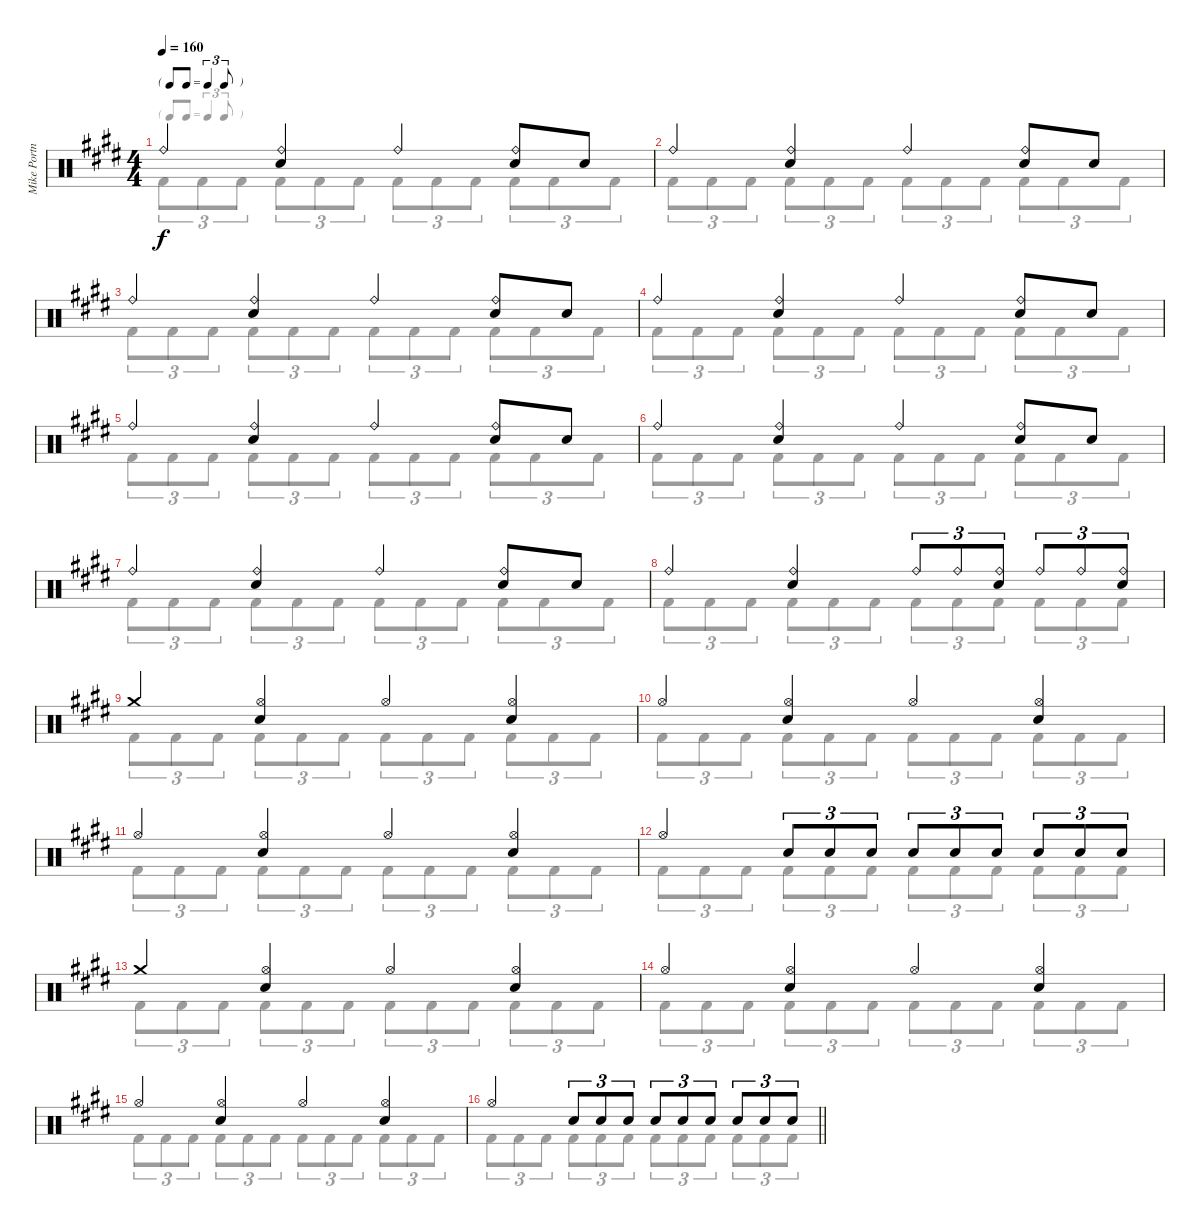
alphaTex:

\track ("Mike Portnoy" "Mike Portn") {instrument percussion}
\staff {score}
\articulation defaults
\voice
\ts (4 4)
\tf triplet8th
\tempo 160
\clef neutral
\ks e "Ride (bell)".4{dy f}
("Ride (bell)" "Snare (hit) 2").4 "Ride (bell)".4 ("Ride (bell)" "Snare (hit) 2").8 "Snare (hit) 2".8 |
"Ride (bell)".4 ("Ride (bell)" "Snare (hit) 2").4 "Ride (bell)".4 ("Ride (bell)" "Snare (hit) 2").8 "Snare (hit) 2".8 |
"Ride (bell)".4 ("Ride (bell)" "Snare (hit) 2").4 "Ride (bell)".4 ("Ride (bell)" "Snare (hit) 2").8 "Snare (hit) 2".8 |
"Ride (bell)".4 ("Ride (bell)" "Snare (hit) 2").4 "Ride (bell)".4 ("Ride (bell)" "Snare (hit) 2").8 "Snare (hit) 2".8 |
"Ride (bell)".4 ("Ride (bell)" "Snare (hit) 2").4 "Ride (bell)".4 ("Ride (bell)" "Snare (hit) 2").8 "Snare (hit) 2".8 |
"Ride (bell)".4 ("Ride (bell)" "Snare (hit) 2").4 "Ride (bell)".4 ("Ride (bell)" "Snare (hit) 2").8 "Snare (hit) 2".8 |
"Ride (bell)".4 ("Ride (bell)" "Snare (hit) 2").4 "Ride (bell)".4 ("Ride (bell)" "Snare (hit) 2").8 "Snare (hit) 2".8 |
"Ride (bell)".4 ("Ride (bell)" "Snare (hit) 2").4 "Ride (bell)".8{tu (3 2)} "Ride (bell)".8{tu (3 2)} ("Ride (bell)" "Snare (hit) 2").8{tu (3 2)} "Ride (bell)".8{tu (3 2)} "Ride (bell)".8{tu (3 2)} ("Ride (bell)" "Snare (hit) 2").8{tu (3 2)} |
"Crash medium (hit)".4 ("Hi-Hat (open)" "Snare (hit) 2").4 "Hi-Hat (open)".4 ("Hi-Hat (open)" "Snare (hit) 2").4 |
"Hi-Hat (open)".4 ("Hi-Hat (open)" "Snare (hit) 2").4 "Hi-Hat (open)".4 ("Hi-Hat (open)" "Snare (hit) 2").4 |
"Hi-Hat (open)".4 ("Hi-Hat (open)" "Snare (hit) 2").4 "Hi-Hat (open)".4 ("Hi-Hat (open)" "Snare (hit) 2").4 |
"Hi-Hat (open)".4 "Snare (hit) 2".8{tu (3 2)} "Snare (hit) 2".8{tu (3 2)} "Snare (hit) 2".8{tu (3 2)} "Snare (hit) 2".8{tu (3 2)} "Snare (hit) 2".8{tu (3 2)} "Snare (hit) 2".8{tu (3 2)} "Snare (hit) 2".8{tu (3 2)} "Snare (hit) 2".8{tu (3 2)} "Snare (hit) 2".8{tu (3 2)} |
"Crash medium (hit)".4 ("Hi-Hat (open)" "Snare (hit) 2").4 "Hi-Hat (open)".4 ("Hi-Hat (open)" "Snare (hit) 2").4 |
"Hi-Hat (open)".4 ("Hi-Hat (open)" "Snare (hit) 2").4 "Hi-Hat (open)".4 ("Hi-Hat (open)" "Snare (hit) 2").4 |
"Hi-Hat (open)".4 ("Hi-Hat (open)" "Snare (hit) 2").4 "Hi-Hat (open)".4 ("Hi-Hat (open)" "Snare (hit) 2").4 |
\barLineRight lightlight "Hi-Hat (open)".4 "Snare (hit) 2".8{tu (3 2)} "Snare (hit) 2".8{tu (3 2)} "Snare (hit) 2".8{tu (3 2)} "Snare (hit) 2".8{tu (3 2)} "Snare (hit) 2".8{tu (3 2)} "Snare (hit) 2".8{tu (3 2)} "Snare (hit) 2".8{tu (3 2)} "Snare (hit) 2".8{tu (3 2)} "Snare (hit) 2".8{tu (3 2)}
\voice
\clef neutral
\ottava regular
\simile none
\ks e "Kick (hit) 2".8{tu (3 2) dy f} "Kick (hit) 2".8{tu (3 2)} "Kick (hit) 2".8{tu (3 2)} "Kick (hit) 2".8{tu (3 2)} "Kick (hit) 2".8{tu (3 2)} "Kick (hit) 2".8{tu (3 2)} "Kick (hit) 2".8{tu (3 2)} "Kick (hit) 2".8{tu (3 2)} "Kick (hit) 2".8{tu (3 2)} "Kick (hit) 2".8{tu (3 2)} "Kick (hit) 2".8{tu (3 2)} "Kick (hit) 2".8{tu (3 2)}
|
"Kick (hit) 2".8{tu (3 2)} "Kick (hit) 2".8{tu (3 2)} "Kick (hit) 2".8{tu (3 2)} "Kick (hit) 2".8{tu (3 2)} "Kick (hit) 2".8{tu (3 2)} "Kick (hit) 2".8{tu (3 2)} "Kick (hit) 2".8{tu (3 2)} "Kick (hit) 2".8{tu (3 2)} "Kick (hit) 2".8{tu (3 2)} "Kick (hit) 2".8{tu (3 2)} "Kick (hit) 2".8{tu (3 2)} "Kick (hit) 2".8{tu (3 2)} |
"Kick (hit) 2".8{tu (3 2)} "Kick (hit) 2".8{tu (3 2)} "Kick (hit) 2".8{tu (3 2)} "Kick (hit) 2".8{tu (3 2)} "Kick (hit) 2".8{tu (3 2)} "Kick (hit) 2".8{tu (3 2)} "Kick (hit) 2".8{tu (3 2)} "Kick (hit) 2".8{tu (3 2)} "Kick (hit) 2".8{tu (3 2)} "Kick (hit) 2".8{tu (3 2)} "Kick (hit) 2".8{tu (3 2)} "Kick (hit) 2".8{tu (3 2)} |
"Kick (hit) 2".8{tu (3 2)} "Kick (hit) 2".8{tu (3 2)} "Kick (hit) 2".8{tu (3 2)} "Kick (hit) 2".8{tu (3 2)} "Kick (hit) 2".8{tu (3 2)} "Kick (hit) 2".8{tu (3 2)} "Kick (hit) 2".8{tu (3 2)} "Kick (hit) 2".8{tu (3 2)} "Kick (hit) 2".8{tu (3 2)} "Kick (hit) 2".8{tu (3 2)} "Kick (hit) 2".8{tu (3 2)} "Kick (hit) 2".8{tu (3 2)} |
"Kick (hit) 2".8{tu (3 2)} "Kick (hit) 2".8{tu (3 2)} "Kick (hit) 2".8{tu (3 2)} "Kick (hit) 2".8{tu (3 2)} "Kick (hit) 2".8{tu (3 2)} "Kick (hit) 2".8{tu (3 2)} "Kick (hit) 2".8{tu (3 2)} "Kick (hit) 2".8{tu (3 2)} "Kick (hit) 2".8{tu (3 2)} "Kick (hit) 2".8{tu (3 2)} "Kick (hit) 2".8{tu (3 2)} "Kick (hit) 2".8{tu (3 2)} |
"Kick (hit) 2".8{tu (3 2)} "Kick (hit) 2".8{tu (3 2)} "Kick (hit) 2".8{tu (3 2)} "Kick (hit) 2".8{tu (3 2)} "Kick (hit) 2".8{tu (3 2)} "Kick (hit) 2".8{tu (3 2)} "Kick (hit) 2".8{tu (3 2)} "Kick (hit) 2".8{tu (3 2)} "Kick (hit) 2".8{tu (3 2)} "Kick (hit) 2".8{tu (3 2)} "Kick (hit) 2".8{tu (3 2)} "Kick (hit) 2".8{tu (3 2)} |
"Kick (hit) 2".8{tu (3 2)} "Kick (hit) 2".8{tu (3 2)} "Kick (hit) 2".8{tu (3 2)} "Kick (hit) 2".8{tu (3 2)} "Kick (hit) 2".8{tu (3 2)} "Kick (hit) 2".8{tu (3 2)} "Kick (hit) 2".8{tu (3 2)} "Kick (hit) 2".8{tu (3 2)} "Kick (hit) 2".8{tu (3 2)} "Kick (hit) 2".8{tu (3 2)} "Kick (hit) 2".8{tu (3 2)} "Kick (hit) 2".8{tu (3 2)} |
"Kick (hit) 2".8{tu (3 2)} "Kick (hit) 2".8{tu (3 2)} "Kick (hit) 2".8{tu (3 2)} "Kick (hit) 2".8{tu (3 2)} "Kick (hit) 2".8{tu (3 2)} "Kick (hit) 2".8{tu (3 2)} "Kick (hit) 2".8{tu (3 2)} "Kick (hit) 2".8{tu (3 2)} "Kick (hit) 2".8{tu (3 2)} "Kick (hit) 2".8{tu (3 2)} "Kick (hit) 2".8{tu (3 2)} "Kick (hit) 2".8{tu (3 2)} |
"Kick (hit) 2".8{tu (3 2)} "Kick (hit) 2".8{tu (3 2)} "Kick (hit) 2".8{tu (3 2)} "Kick (hit) 2".8{tu (3 2)} "Kick (hit) 2".8{tu (3 2)} "Kick (hit) 2".8{tu (3 2)} "Kick (hit) 2".8{tu (3 2)} "Kick (hit) 2".8{tu (3 2)} "Kick (hit) 2".8{tu (3 2)} "Kick (hit) 2".8{tu (3 2)} "Kick (hit) 2".8{tu (3 2)} "Kick (hit) 2".8{tu (3 2)} |
"Kick (hit) 2".8{tu (3 2)} "Kick (hit) 2".8{tu (3 2)} "Kick (hit) 2".8{tu (3 2)} "Kick (hit) 2".8{tu (3 2)} "Kick (hit) 2".8{tu (3 2)} "Kick (hit) 2".8{tu (3 2)} "Kick (hit) 2".8{tu (3 2)} "Kick (hit) 2".8{tu (3 2)} "Kick (hit) 2".8{tu (3 2)} "Kick (hit) 2".8{tu (3 2)} "Kick (hit) 2".8{tu (3 2)} "Kick (hit) 2".8{tu (3 2)} |
"Kick (hit) 2".8{tu (3 2)} "Kick (hit) 2".8{tu (3 2)} "Kick (hit) 2".8{tu (3 2)} "Kick (hit) 2".8{tu (3 2)} "Kick (hit) 2".8{tu (3 2)} "Kick (hit) 2".8{tu (3 2)} "Kick (hit) 2".8{tu (3 2)} "Kick (hit) 2".8{tu (3 2)} "Kick (hit) 2".8{tu (3 2)} "Kick (hit) 2".8{tu (3 2)} "Kick (hit) 2".8{tu (3 2)} "Kick (hit) 2".8{tu (3 2)} |
"Kick (hit) 2".8{tu (3 2)} "Kick (hit) 2".8{tu (3 2)} "Kick (hit) 2".8{tu (3 2)} "Kick (hit) 2".8{tu (3 2)} "Kick (hit) 2".8{tu (3 2)} "Kick (hit) 2".8{tu (3 2)} "Kick (hit) 2".8{tu (3 2)} "Kick (hit) 2".8{tu (3 2)} "Kick (hit) 2".8{tu (3 2)} "Kick (hit) 2".8{tu (3 2)} "Kick (hit) 2".8{tu (3 2)} "Kick (hit) 2".8{tu (3 2)} |
"Kick (hit) 2".8{tu (3 2)} "Kick (hit) 2".8{tu (3 2)} "Kick (hit) 2".8{tu (3 2)} "Kick (hit) 2".8{tu (3 2)} "Kick (hit) 2".8{tu (3 2)} "Kick (hit) 2".8{tu (3 2)} "Kick (hit) 2".8{tu (3 2)} "Kick (hit) 2".8{tu (3 2)} "Kick (hit) 2".8{tu (3 2)} "Kick (hit) 2".8{tu (3 2)} "Kick (hit) 2".8{tu (3 2)} "Kick (hit) 2".8{tu (3 2)} |
"Kick (hit) 2".8{tu (3 2)} "Kick (hit) 2".8{tu (3 2)} "Kick (hit) 2".8{tu (3 2)} "Kick (hit) 2".8{tu (3 2)} "Kick (hit) 2".8{tu (3 2)} "Kick (hit) 2".8{tu (3 2)} "Kick (hit) 2".8{tu (3 2)} "Kick (hit) 2".8{tu (3 2)} "Kick (hit) 2".8{tu (3 2)} "Kick (hit) 2".8{tu (3 2)} "Kick (hit) 2".8{tu (3 2)} "Kick (hit) 2".8{tu (3 2)} |
"Kick (hit) 2".8{tu (3 2)} "Kick (hit) 2".8{tu (3 2)} "Kick (hit) 2".8{tu (3 2)} "Kick (hit) 2".8{tu (3 2)} "Kick (hit) 2".8{tu (3 2)} "Kick (hit) 2".8{tu (3 2)} "Kick (hit) 2".8{tu (3 2)} "Kick (hit) 2".8{tu (3 2)} "Kick (hit) 2".8{tu (3 2)} "Kick (hit) 2".8{tu (3 2)} "Kick (hit) 2".8{tu (3 2)} "Kick (hit) 2".8{tu (3 2)} |
\barLineRight lightlight "Kick (hit) 2".8{tu (3 2)} "Kick (hit) 2".8{tu (3 2)} "Kick (hit) 2".8{tu (3 2)} "Kick (hit) 2".8{tu (3 2)} "Kick (hit) 2".8{tu (3 2)} "Kick (hit) 2".8{tu (3 2)} "Kick (hit) 2".8{tu (3 2)} "Kick (hit) 2".8{tu (3 2)} "Kick (hit) 2".8{tu (3 2)} "Kick (hit) 2".8{tu (3 2)} "Kick (hit) 2".8{tu (3 2)} "Kick (hit) 2".8{tu (3 2)}
